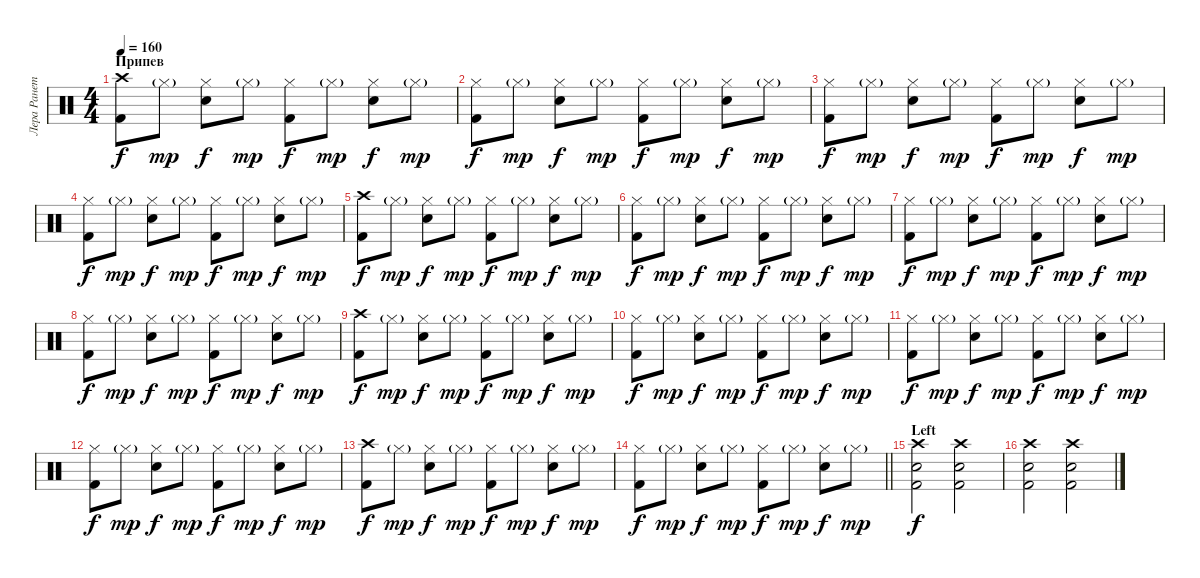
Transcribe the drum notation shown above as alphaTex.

\track ("Лера Ранетка" "Лера Ранет") {instrument percussion}
\staff {score}
\articulation defaults
\ts (4 4)
\section ("" "Припев")
\tempo 160
\clef neutral
\ks c
("Crash high (hit)" "Kick (hit) 2").8{dy f} "Hi-Hat (closed)"{g}.8{dy mp} ("Hi-Hat (closed)" "Snare (hit) 2").8{dy f} "Hi-Hat (closed)"{g}.8{dy mp} ("Hi-Hat (closed)" "Kick (hit) 2").8{dy f} "Hi-Hat (closed)"{g}.8{dy mp} ("Hi-Hat (closed)" "Snare (hit) 2").8{dy f} "Hi-Hat (closed)"{g}.8{dy mp} |
("Hi-Hat (closed)" "Kick (hit) 2").8{dy f} "Hi-Hat (closed)"{g}.8{dy mp} ("Hi-Hat (closed)" "Snare (hit) 2").8{dy f} "Hi-Hat (closed)"{g}.8{dy mp} ("Hi-Hat (closed)" "Kick (hit) 2").8{dy f} "Hi-Hat (closed)"{g}.8{dy mp} ("Hi-Hat (closed)" "Snare (hit) 2").8{dy f} "Hi-Hat (closed)"{g}.8{dy mp} |
("Hi-Hat (closed)" "Kick (hit) 2").8{dy f} "Hi-Hat (closed)"{g}.8{dy mp} ("Hi-Hat (closed)" "Snare (hit) 2").8{dy f} "Hi-Hat (closed)"{g}.8{dy mp} ("Hi-Hat (closed)" "Kick (hit) 2").8{dy f} "Hi-Hat (closed)"{g}.8{dy mp} ("Hi-Hat (closed)" "Snare (hit) 2").8{dy f} "Hi-Hat (closed)"{g}.8{dy mp} |
("Hi-Hat (closed)" "Kick (hit) 2").8{dy f} "Hi-Hat (closed)"{g}.8{dy mp} ("Hi-Hat (closed)" "Snare (hit) 2").8{dy f} "Hi-Hat (closed)"{g}.8{dy mp} ("Hi-Hat (closed)" "Kick (hit) 2").8{dy f} "Hi-Hat (closed)"{g}.8{dy mp} ("Hi-Hat (closed)" "Snare (hit) 2").8{dy f} "Hi-Hat (closed)"{g}.8{dy mp} |
("Crash high (hit)" "Kick (hit) 2").8{dy f} "Hi-Hat (closed)"{g}.8{dy mp} ("Hi-Hat (closed)" "Snare (hit) 2").8{dy f} "Hi-Hat (closed)"{g}.8{dy mp} ("Hi-Hat (closed)" "Kick (hit) 2").8{dy f} "Hi-Hat (closed)"{g}.8{dy mp} ("Hi-Hat (closed)" "Snare (hit) 2").8{dy f} "Hi-Hat (closed)"{g}.8{dy mp} |
("Hi-Hat (closed)" "Kick (hit) 2").8{dy f} "Hi-Hat (closed)"{g}.8{dy mp} ("Hi-Hat (closed)" "Snare (hit) 2").8{dy f} "Hi-Hat (closed)"{g}.8{dy mp} ("Hi-Hat (closed)" "Kick (hit) 2").8{dy f} "Hi-Hat (closed)"{g}.8{dy mp} ("Hi-Hat (closed)" "Snare (hit) 2").8{dy f} "Hi-Hat (closed)"{g}.8{dy mp} |
("Hi-Hat (closed)" "Kick (hit) 2").8{dy f} "Hi-Hat (closed)"{g}.8{dy mp} ("Hi-Hat (closed)" "Snare (hit) 2").8{dy f} "Hi-Hat (closed)"{g}.8{dy mp} ("Hi-Hat (closed)" "Kick (hit) 2").8{dy f} "Hi-Hat (closed)"{g}.8{dy mp} ("Hi-Hat (closed)" "Snare (hit) 2").8{dy f} "Hi-Hat (closed)"{g}.8{dy mp} |
("Hi-Hat (closed)" "Kick (hit) 2").8{dy f} "Hi-Hat (closed)"{g}.8{dy mp} ("Hi-Hat (closed)" "Snare (hit) 2").8{dy f} "Hi-Hat (closed)"{g}.8{dy mp} ("Hi-Hat (closed)" "Kick (hit) 2").8{dy f} "Hi-Hat (closed)"{g}.8{dy mp} ("Hi-Hat (closed)" "Snare (hit) 2").8{dy f} "Hi-Hat (closed)"{g}.8{dy mp} |
("Crash high (hit)" "Kick (hit) 2").8{dy f} "Hi-Hat (closed)"{g}.8{dy mp} ("Hi-Hat (closed)" "Snare (hit) 2").8{dy f} "Hi-Hat (closed)"{g}.8{dy mp} ("Hi-Hat (closed)" "Kick (hit) 2").8{dy f} "Hi-Hat (closed)"{g}.8{dy mp} ("Hi-Hat (closed)" "Snare (hit) 2").8{dy f} "Hi-Hat (closed)"{g}.8{dy mp} |
("Hi-Hat (closed)" "Kick (hit) 2").8{dy f} "Hi-Hat (closed)"{g}.8{dy mp} ("Hi-Hat (closed)" "Snare (hit) 2").8{dy f} "Hi-Hat (closed)"{g}.8{dy mp} ("Hi-Hat (closed)" "Kick (hit) 2").8{dy f} "Hi-Hat (closed)"{g}.8{dy mp} ("Hi-Hat (closed)" "Snare (hit) 2").8{dy f} "Hi-Hat (closed)"{g}.8{dy mp} |
("Hi-Hat (closed)" "Kick (hit) 2").8{dy f} "Hi-Hat (closed)"{g}.8{dy mp} ("Hi-Hat (closed)" "Snare (hit) 2").8{dy f} "Hi-Hat (closed)"{g}.8{dy mp} ("Hi-Hat (closed)" "Kick (hit) 2").8{dy f} "Hi-Hat (closed)"{g}.8{dy mp} ("Hi-Hat (closed)" "Snare (hit) 2").8{dy f} "Hi-Hat (closed)"{g}.8{dy mp} |
("Hi-Hat (closed)" "Kick (hit) 2").8{dy f} "Hi-Hat (closed)"{g}.8{dy mp} ("Hi-Hat (closed)" "Snare (hit) 2").8{dy f} "Hi-Hat (closed)"{g}.8{dy mp} ("Hi-Hat (closed)" "Kick (hit) 2").8{dy f} "Hi-Hat (closed)"{g}.8{dy mp} ("Hi-Hat (closed)" "Snare (hit) 2").8{dy f} "Hi-Hat (closed)"{g}.8{dy mp} |
("Crash high (hit)" "Kick (hit) 2").8{dy f} "Hi-Hat (closed)"{g}.8{dy mp} ("Hi-Hat (closed)" "Snare (hit) 2").8{dy f} "Hi-Hat (closed)"{g}.8{dy mp} ("Hi-Hat (closed)" "Kick (hit) 2").8{dy f} "Hi-Hat (closed)"{g}.8{dy mp} ("Hi-Hat (closed)" "Snare (hit) 2").8{dy f} "Hi-Hat (closed)"{g}.8{dy mp} |
\barLineRight lightlight
("Hi-Hat (closed)" "Kick (hit) 2").8{dy f} "Hi-Hat (closed)"{g}.8{dy mp} ("Hi-Hat (closed)" "Snare (hit) 2").8{dy f} "Hi-Hat (closed)"{g}.8{dy mp} ("Hi-Hat (closed)" "Kick (hit) 2").8{dy f} "Hi-Hat (closed)"{g}.8{dy mp} ("Hi-Hat (closed)" "Snare (hit) 2").8{dy f} "Hi-Hat (closed)"{g}.8{dy mp} |
\section ("" "Left")
("Crash high (hit)" "Snare (hit) 2" "Kick (hit) 2").2{dy f} ("Crash high (hit)" "Snare (hit) 2" "Kick (hit) 2").2 |
("Crash high (hit)" "Snare (hit) 2" "Kick (hit) 2").2 ("Crash high (hit)" "Snare (hit) 2" "Kick (hit) 2").2
